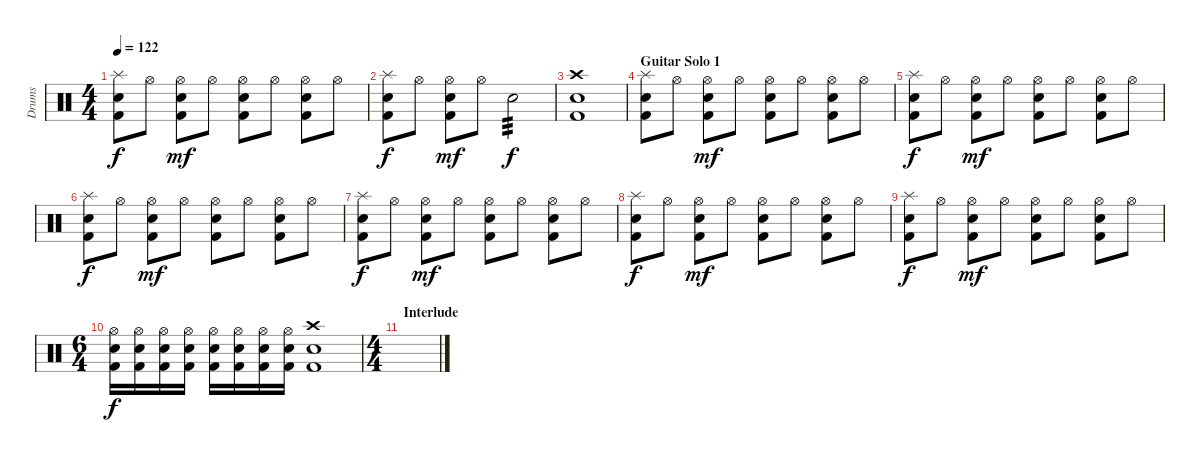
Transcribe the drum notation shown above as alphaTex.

\track ("Drums" "Drums") {instrument percussion}
\staff {score}
\articulation defaults
\ts (4 4)
\tempo 122
\clef neutral
\ks c
("Splash (hit)" "Snare (hit) 2" "Kick (hit) 2").8{dy f} "Hi-Hat (open)".8 ("Hi-Hat (open)" "Snare (hit) 2" "Kick (hit) 2").8{dy mf} "Hi-Hat (open)".8 ("Hi-Hat (open)" "Snare (hit) 2" "Kick (hit) 2").8 "Hi-Hat (open)".8 ("Hi-Hat (open)" "Snare (hit) 2" "Kick (hit) 2").8 "Hi-Hat (open)".8 |
("Splash (hit)" "Snare (hit) 2" "Kick (hit) 2").8{dy f} "Hi-Hat (open)".8 ("Hi-Hat (open)" "Snare (hit) 2" "Kick (hit) 2").8{dy mf} "Hi-Hat (open)".8 "Snare (hit) 2".2{tp 3 dy f} |
("Crash high (hit)" "Snare (hit) 2" "Kick (hit) 2").1 |
\section ("" "Guitar Solo 1")
("Splash (hit)" "Snare (hit) 2" "Kick (hit) 2").8 "Hi-Hat (open)".8 ("Hi-Hat (open)" "Snare (hit) 2" "Kick (hit) 2").8{dy mf} "Hi-Hat (open)".8 ("Hi-Hat (open)" "Snare (hit) 2" "Kick (hit) 2").8 "Hi-Hat (open)".8 ("Hi-Hat (open)" "Snare (hit) 2" "Kick (hit) 2").8 "Hi-Hat (open)".8 |
("Splash (hit)" "Snare (hit) 2" "Kick (hit) 2").8{dy f} "Hi-Hat (open)".8 ("Hi-Hat (open)" "Snare (hit) 2" "Kick (hit) 2").8{dy mf} "Hi-Hat (open)".8 ("Hi-Hat (open)" "Snare (hit) 2" "Kick (hit) 2").8 "Hi-Hat (open)".8 ("Hi-Hat (open)" "Snare (hit) 2" "Kick (hit) 2").8 "Hi-Hat (open)".8 |
("Splash (hit)" "Snare (hit) 2" "Kick (hit) 2").8{dy f} "Hi-Hat (open)".8 ("Hi-Hat (open)" "Snare (hit) 2" "Kick (hit) 2").8{dy mf} "Hi-Hat (open)".8 ("Hi-Hat (open)" "Snare (hit) 2" "Kick (hit) 2").8 "Hi-Hat (open)".8 ("Hi-Hat (open)" "Snare (hit) 2" "Kick (hit) 2").8 "Hi-Hat (open)".8 |
("Splash (hit)" "Snare (hit) 2" "Kick (hit) 2").8{dy f} "Hi-Hat (open)".8 ("Hi-Hat (open)" "Snare (hit) 2" "Kick (hit) 2").8{dy mf} "Hi-Hat (open)".8 ("Hi-Hat (open)" "Snare (hit) 2" "Kick (hit) 2").8 "Hi-Hat (open)".8 ("Hi-Hat (open)" "Snare (hit) 2" "Kick (hit) 2").8 "Hi-Hat (open)".8 |
("Splash (hit)" "Snare (hit) 2" "Kick (hit) 2").8{dy f} "Hi-Hat (open)".8 ("Hi-Hat (open)" "Snare (hit) 2" "Kick (hit) 2").8{dy mf} "Hi-Hat (open)".8 ("Hi-Hat (open)" "Snare (hit) 2" "Kick (hit) 2").8 "Hi-Hat (open)".8 ("Hi-Hat (open)" "Snare (hit) 2" "Kick (hit) 2").8 "Hi-Hat (open)".8 |
("Splash (hit)" "Snare (hit) 2" "Kick (hit) 2").8{dy f} "Hi-Hat (open)".8 ("Hi-Hat (open)" "Snare (hit) 2" "Kick (hit) 2").8{dy mf} "Hi-Hat (open)".8 ("Hi-Hat (open)" "Snare (hit) 2" "Kick (hit) 2").8 "Hi-Hat (open)".8 ("Hi-Hat (open)" "Snare (hit) 2" "Kick (hit) 2").8 "Hi-Hat (open)".8 |
\ts (6 4)
("Hi-Hat (open)" "Snare (hit) 2" "Kick (hit) 2").16{dy f} ("Hi-Hat (open)" "Snare (hit) 2" "Kick (hit) 2").16 ("Hi-Hat (open)" "Snare (hit) 2" "Kick (hit) 2").16 ("Hi-Hat (open)" "Snare (hit) 2" "Kick (hit) 2").16 ("Hi-Hat (open)" "Snare (hit) 2" "Kick (hit) 2").16 ("Hi-Hat (open)" "Snare (hit) 2" "Kick (hit) 2").16 ("Hi-Hat (open)" "Snare (hit) 2" "Kick (hit) 2").16 ("Hi-Hat (open)" "Snare (hit) 2" "Kick (hit) 2").16 ("Crash high (hit)" "Snare (hit) 2" "Kick (hit) 2").1 |
\ts (4 4)
\section ("" "Interlude")
